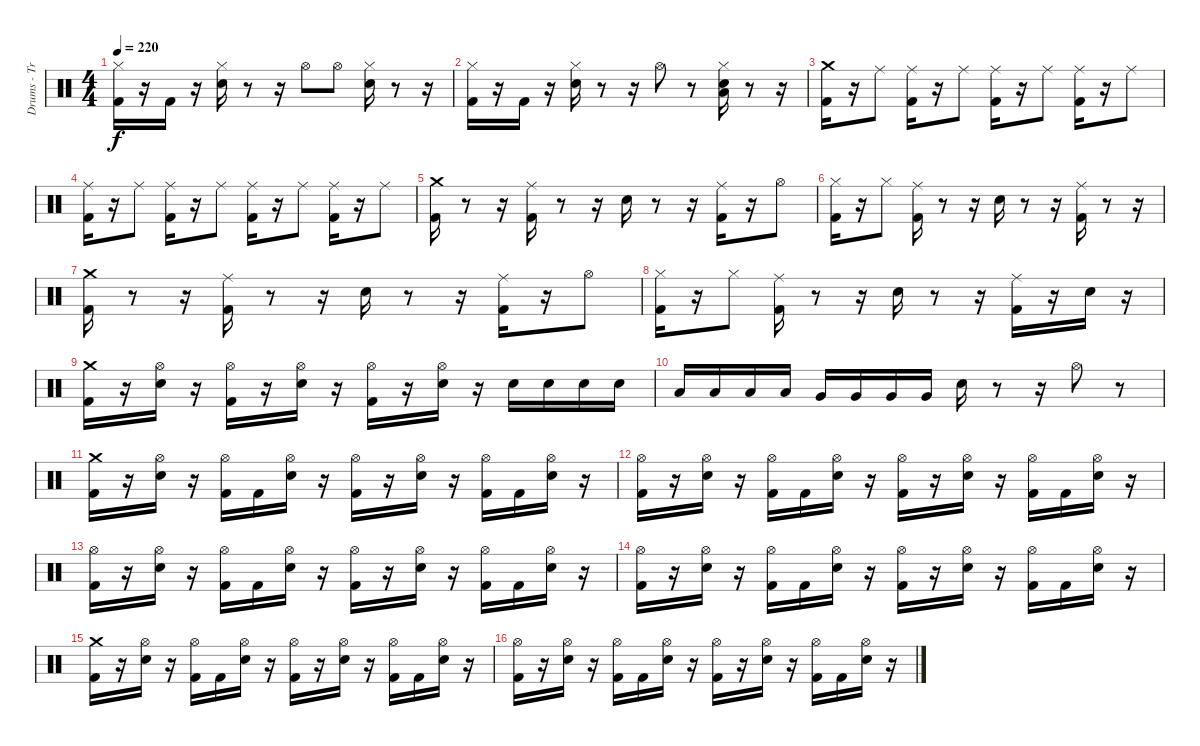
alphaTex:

\track ("Drums - Travis Barker" "Drums - Tr") {instrument percussion}
\staff {score}
\articulation defaults
\ts (4 4)
\tempo 220
\clef neutral
\ks c
("Kick (hit) 2" "Hi-Hat (closed)").16{dy f} r.16 "Kick (hit) 2".16 r.16 ("Electric Snare (hit)" "Hi-Hat (closed)").16 r.8 r.16 "Hi-Hat (open)".8 "Hi-Hat (open)".8 ("Electric Snare (hit)" "Hi-Hat (closed)").16 r.8 r.16 |
("Hi-Hat (closed)" "Kick (hit) 2").16 r.16 "Kick (hit) 2".16 r.16 ("Electric Snare (hit)" "Hi-Hat (closed)").16 r.8 r.16 "Hi-Hat (open)".8 r.8 ("Electric Snare (hit)" "Low Tom (hit)" "Hi-Hat (closed)").16 r.8 r.16 |
("Kick (hit) 2" "Crash medium (hit)").16 r.16 "Ride (middle)".8 ("Kick (hit) 2" "Ride (middle)").16 r.16 "Ride (middle)".8 ("Kick (hit) 2" "Ride (middle)").16 r.16 "Ride (middle)".8 ("Kick (hit) 2" "Ride (middle)").16 r.16 "Ride (middle)".8 |
("Kick (hit) 2" "Ride (middle)").16 r.16 "Ride (middle)".8 ("Kick (hit) 2" "Ride (middle)").16 r.16 "Ride (middle)".8 ("Kick (hit) 2" "Ride (middle)").16 r.16 "Ride (middle)".8 ("Kick (hit) 2" "Ride (middle)").16 r.16 "Ride (middle)".8 |
("Crash medium (hit)" "Kick (hit) 2").16 r.8 r.16 ("Ride (middle)" "Kick (hit) 2").16 r.8 r.16 "Electric Snare (hit)".16 r.8 r.16 ("Ride (middle)" "Kick (hit) 2").16 r.16 "Hi-Hat (open)".8 |
("Kick (hit) 2" "Hi-Hat (closed)").16 r.16 "Hi-Hat (closed)".8 ("Ride (middle)" "Kick (hit) 2").16 r.8 r.16 "Electric Snare (hit)".16 r.8 r.16 ("Ride (middle)" "Kick (hit) 2").16 r.8 r.16 |
("Crash medium (hit)" "Kick (hit) 2").16 r.8 r.16 ("Ride (middle)" "Kick (hit) 2").16 r.8 r.16 "Electric Snare (hit)".16 r.8 r.16 ("Ride (middle)" "Kick (hit) 2").16 r.16 "Hi-Hat (open)".8 |
("Kick (hit) 2" "Hi-Hat (closed)").16 r.16 "Hi-Hat (closed)".8 ("Ride (middle)" "Kick (hit) 2").16 r.8 r.16 "Electric Snare (hit)".16 r.8 r.16 ("Ride (middle)" "Kick (hit) 2").16 r.16 "Electric Snare (hit)".16 r.16 |
("Kick (hit) 2" "Crash medium (hit)").16 r.16 ("Electric Snare (hit)" "Hi-Hat (open)").16 r.16 ("Kick (hit) 2" "Hi-Hat (open)").16 r.16 ("Electric Snare (hit)" "Hi-Hat (open)").16 r.16 ("Kick (hit) 2" "Hi-Hat (open)").16 r.16 ("Electric Snare (hit)" "Hi-Hat (open)").16 r.16 "Electric Snare (hit)".16 "Electric Snare (hit)".16 "Electric Snare (hit)".16 "Electric Snare (hit)".16 |
"Low Tom (hit)".16 "Low Tom (hit)".16 "Low Tom (hit)".16 "Low Tom (hit)".16 "Very Low Tom (hit)".16 "Very Low Tom (hit)".16 "Very Low Tom (hit)".16 "Very Low Tom (hit)".16 "Electric Snare (hit)".16 r.8 r.16 "Hi-Hat (open)".8 r.8 |
("Kick (hit) 2" "Crash medium (hit)").16 r.16 ("Electric Snare (hit)" "Hi-Hat (open)").16 r.16 ("Kick (hit) 2" "Hi-Hat (open)").16 "Kick (hit) 2".16 ("Electric Snare (hit)" "Hi-Hat (open)").16 r.16 ("Kick (hit) 2" "Hi-Hat (open)").16 r.16 ("Electric Snare (hit)" "Hi-Hat (open)").16 r.16 ("Kick (hit) 2" "Hi-Hat (open)").16 "Kick (hit) 2".16 ("Electric Snare (hit)" "Hi-Hat (open)").16 r.16 |
("Kick (hit) 2" "Hi-Hat (open)").16 r.16 ("Electric Snare (hit)" "Hi-Hat (open)").16 r.16 ("Kick (hit) 2" "Hi-Hat (open)").16 "Kick (hit) 2".16 ("Electric Snare (hit)" "Hi-Hat (open)").16 r.16 ("Kick (hit) 2" "Hi-Hat (open)").16 r.16 ("Electric Snare (hit)" "Hi-Hat (open)").16 r.16 ("Kick (hit) 2" "Hi-Hat (open)").16 "Kick (hit) 2".16 ("Electric Snare (hit)" "Hi-Hat (open)").16 r.16 |
("Kick (hit) 2" "Hi-Hat (open)").16 r.16 ("Electric Snare (hit)" "Hi-Hat (open)").16 r.16 ("Kick (hit) 2" "Hi-Hat (open)").16 "Kick (hit) 2".16 ("Electric Snare (hit)" "Hi-Hat (open)").16 r.16 ("Kick (hit) 2" "Hi-Hat (open)").16 r.16 ("Electric Snare (hit)" "Hi-Hat (open)").16 r.16 ("Kick (hit) 2" "Hi-Hat (open)").16 "Kick (hit) 2".16 ("Electric Snare (hit)" "Hi-Hat (open)").16 r.16 |
("Kick (hit) 2" "Hi-Hat (open)").16 r.16 ("Electric Snare (hit)" "Hi-Hat (open)").16 r.16 ("Kick (hit) 2" "Hi-Hat (open)").16 "Kick (hit) 2".16 ("Electric Snare (hit)" "Hi-Hat (open)").16 r.16 ("Kick (hit) 2" "Hi-Hat (open)").16 r.16 ("Electric Snare (hit)" "Hi-Hat (open)").16 r.16 ("Kick (hit) 2" "Hi-Hat (open)").16 "Kick (hit) 2".16 ("Electric Snare (hit)" "Hi-Hat (open)").16 r.16 |
("Kick (hit) 2" "Crash medium (hit)").16 r.16 ("Electric Snare (hit)" "Hi-Hat (open)").16 r.16 ("Kick (hit) 2" "Hi-Hat (open)").16 "Kick (hit) 2".16 ("Electric Snare (hit)" "Hi-Hat (open)").16 r.16 ("Kick (hit) 2" "Hi-Hat (open)").16 r.16 ("Electric Snare (hit)" "Hi-Hat (open)").16 r.16 ("Kick (hit) 2" "Hi-Hat (open)").16 "Kick (hit) 2".16 ("Electric Snare (hit)" "Hi-Hat (open)").16 r.16 |
("Kick (hit) 2" "Hi-Hat (open)").16 r.16 ("Electric Snare (hit)" "Hi-Hat (open)").16 r.16 ("Kick (hit) 2" "Hi-Hat (open)").16 "Kick (hit) 2".16 ("Electric Snare (hit)" "Hi-Hat (open)").16 r.16 ("Kick (hit) 2" "Hi-Hat (open)").16 r.16 ("Electric Snare (hit)" "Hi-Hat (open)").16 r.16 ("Kick (hit) 2" "Hi-Hat (open)").16 "Kick (hit) 2".16 ("Electric Snare (hit)" "Hi-Hat (open)").16 r.16
